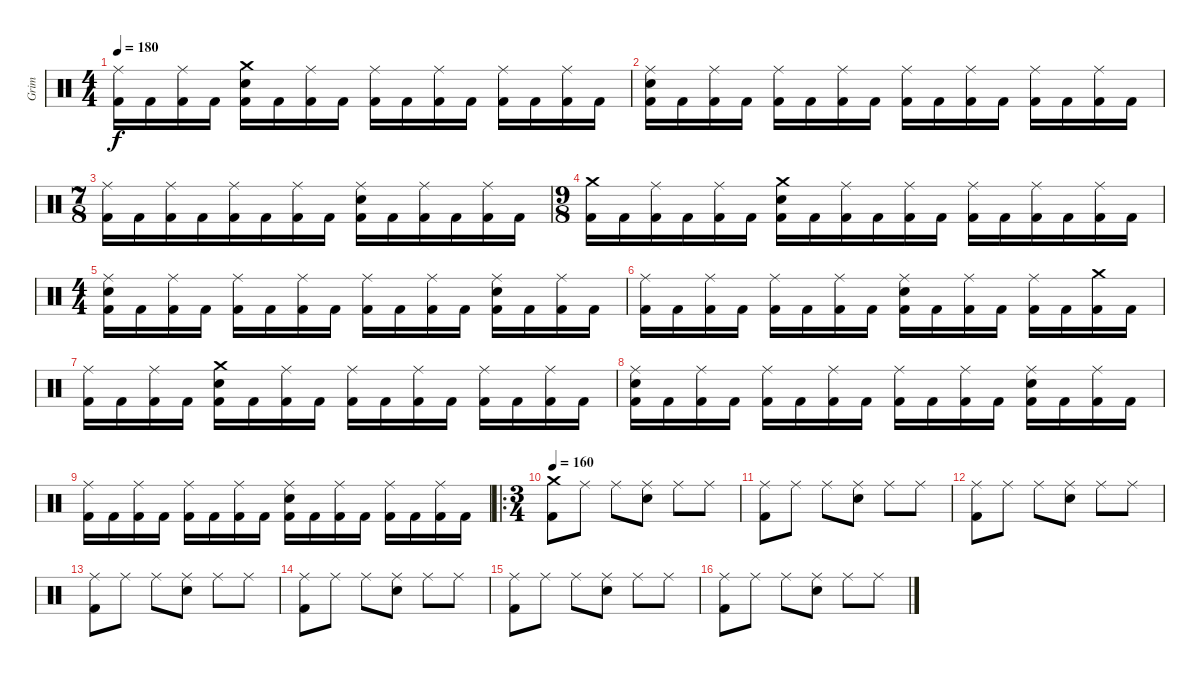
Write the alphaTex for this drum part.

\track ("Grim" "Grim") {instrument percussion}
\staff {score}
\articulation defaults
\ts (4 4)
\tempo 180
\clef neutral
\ks c
("Kick (hit) 2" "Ride (middle)").16{dy f} "Kick (hit) 2".16 ("Kick (hit) 2" "Ride (middle)").16 "Kick (hit) 2".16 ("Kick (hit) 2" "Electric Snare (hit)" "Crash medium (hit)").16 "Kick (hit) 2".16 ("Kick (hit) 2" "Ride (middle)").16 "Kick (hit) 2".16 ("Kick (hit) 2" "Ride (middle)").16 "Kick (hit) 2".16 ("Kick (hit) 2" "Ride (middle)").16 "Kick (hit) 2".16 ("Kick (hit) 2" "Ride (middle)").16 "Kick (hit) 2".16 ("Kick (hit) 2" "Ride (middle)").16 "Kick (hit) 2".16 |
("Kick (hit) 2" "Electric Snare (hit)" "Ride (middle)").16 "Kick (hit) 2".16 ("Kick (hit) 2" "Ride (middle)").16 "Kick (hit) 2".16 ("Kick (hit) 2" "Ride (middle)").16 "Kick (hit) 2".16 ("Kick (hit) 2" "Ride (middle)").16 "Kick (hit) 2".16 ("Kick (hit) 2" "Ride (middle)").16 "Kick (hit) 2".16 ("Kick (hit) 2" "Ride (middle)").16 "Kick (hit) 2".16 ("Kick (hit) 2" "Ride (middle)").16 "Kick (hit) 2".16 ("Kick (hit) 2" "Ride (middle)").16 "Kick (hit) 2".16 |
\ts (7 8)
("Kick (hit) 2" "Ride (middle)").16 "Kick (hit) 2".16 ("Kick (hit) 2" "Ride (middle)").16 "Kick (hit) 2".16 ("Kick (hit) 2" "Ride (middle)").16 "Kick (hit) 2".16 ("Kick (hit) 2" "Ride (middle)").16 "Kick (hit) 2".16 ("Kick (hit) 2" "Electric Snare (hit)" "Ride (middle)").16 "Kick (hit) 2".16 ("Kick (hit) 2" "Ride (middle)").16 "Kick (hit) 2".16 ("Kick (hit) 2" "Ride (middle)").16 "Kick (hit) 2".16 |
\ts (9 8)
("Kick (hit) 2" "Crash medium (hit)").16 "Kick (hit) 2".16 ("Kick (hit) 2" "Ride (middle)").16 "Kick (hit) 2".16 ("Kick (hit) 2" "Ride (middle)").16 "Kick (hit) 2".16 ("Kick (hit) 2" "Electric Snare (hit)" "Crash medium (hit)").16 "Kick (hit) 2".16 ("Kick (hit) 2" "Ride (middle)").16 "Kick (hit) 2".16 ("Kick (hit) 2" "Ride (middle)").16 "Kick (hit) 2".16 ("Kick (hit) 2" "Ride (middle)").16 "Kick (hit) 2".16 ("Kick (hit) 2" "Ride (middle)").16 "Kick (hit) 2".16 ("Kick (hit) 2" "Ride (middle)").16 "Kick (hit) 2".16 |
\ts (4 4)
("Kick (hit) 2" "Electric Snare (hit)" "Ride (middle)").16 "Kick (hit) 2".16 ("Kick (hit) 2" "Ride (middle)").16 "Kick (hit) 2".16 ("Kick (hit) 2" "Ride (middle)").16 "Kick (hit) 2".16 ("Kick (hit) 2" "Ride (middle)").16 "Kick (hit) 2".16 ("Kick (hit) 2" "Ride (middle)").16 "Kick (hit) 2".16 ("Kick (hit) 2" "Ride (middle)").16 "Kick (hit) 2".16 ("Kick (hit) 2" "Electric Snare (hit)" "Ride (middle)").16 "Kick (hit) 2".16 ("Kick (hit) 2" "Ride (middle)").16 "Kick (hit) 2".16 |
("Kick (hit) 2" "Ride (middle)").16 "Kick (hit) 2".16 ("Kick (hit) 2" "Ride (middle)").16 "Kick (hit) 2".16 ("Kick (hit) 2" "Ride (middle)").16 "Kick (hit) 2".16 ("Kick (hit) 2" "Ride (middle)").16 "Kick (hit) 2".16 ("Kick (hit) 2" "Electric Snare (hit)" "Ride (middle)").16 "Kick (hit) 2".16 ("Kick (hit) 2" "Ride (middle)").16 "Kick (hit) 2".16 ("Kick (hit) 2" "Ride (middle)").16 "Kick (hit) 2".16 ("Kick (hit) 2" "Crash medium (hit)").16 "Kick (hit) 2".16 |
("Kick (hit) 2" "Ride (middle)").16 "Kick (hit) 2".16 ("Kick (hit) 2" "Ride (middle)").16 "Kick (hit) 2".16 ("Kick (hit) 2" "Electric Snare (hit)" "Crash medium (hit)").16 "Kick (hit) 2".16 ("Kick (hit) 2" "Ride (middle)").16 "Kick (hit) 2".16 ("Kick (hit) 2" "Ride (middle)").16 "Kick (hit) 2".16 ("Kick (hit) 2" "Ride (middle)").16 "Kick (hit) 2".16 ("Kick (hit) 2" "Ride (middle)").16 "Kick (hit) 2".16 ("Kick (hit) 2" "Ride (middle)").16 "Kick (hit) 2".16 |
("Kick (hit) 2" "Electric Snare (hit)" "Ride (middle)").16 "Kick (hit) 2".16 ("Kick (hit) 2" "Ride (middle)").16 "Kick (hit) 2".16 ("Kick (hit) 2" "Ride (middle)").16 "Kick (hit) 2".16 ("Kick (hit) 2" "Ride (middle)").16 "Kick (hit) 2".16 ("Kick (hit) 2" "Ride (middle)").16 "Kick (hit) 2".16 ("Kick (hit) 2" "Ride (middle)").16 "Kick (hit) 2".16 ("Kick (hit) 2" "Electric Snare (hit)" "Ride (middle)").16 "Kick (hit) 2".16 ("Kick (hit) 2" "Ride (middle)").16 "Kick (hit) 2".16 |
("Kick (hit) 2" "Ride (middle)").16 "Kick (hit) 2".16 ("Kick (hit) 2" "Ride (middle)").16 "Kick (hit) 2".16 ("Kick (hit) 2" "Ride (middle)").16 "Kick (hit) 2".16 ("Kick (hit) 2" "Ride (middle)").16 "Kick (hit) 2".16 ("Kick (hit) 2" "Electric Snare (hit)" "Ride (middle)").16 "Kick (hit) 2".16 ("Kick (hit) 2" "Ride (middle)").16 "Kick (hit) 2".16 ("Kick (hit) 2" "Ride (middle)").16 "Kick (hit) 2".16 ("Kick (hit) 2" "Ride (middle)").16 "Kick (hit) 2".16 |
\ro
\ts (3 4)
\tempo 160
("Kick (hit) 2" "Crash medium (hit)").8 "Ride (middle)".8 "Ride (middle)".8 ("Electric Snare (hit)" "Ride (middle)").8 "Ride (middle)".8 "Ride (middle)".8 |
("Kick (hit) 2" "Ride (middle)").8 "Ride (middle)".8 "Ride (middle)".8 ("Electric Snare (hit)" "Ride (middle)").8 "Ride (middle)".8 "Ride (middle)".8 |
("Kick (hit) 2" "Ride (middle)").8 "Ride (middle)".8 "Ride (middle)".8 ("Electric Snare (hit)" "Ride (middle)").8 "Ride (middle)".8 "Ride (middle)".8 |
("Kick (hit) 2" "Ride (middle)").8 "Ride (middle)".8 "Ride (middle)".8 ("Electric Snare (hit)" "Ride (middle)").8 "Ride (middle)".8 "Ride (middle)".8 |
("Kick (hit) 2" "Ride (middle)").8 "Ride (middle)".8 "Ride (middle)".8 ("Electric Snare (hit)" "Ride (middle)").8 "Ride (middle)".8 "Ride (middle)".8 |
("Kick (hit) 2" "Ride (middle)").8 "Ride (middle)".8 "Ride (middle)".8 ("Electric Snare (hit)" "Ride (middle)").8 "Ride (middle)".8 "Ride (middle)".8 |
("Kick (hit) 2" "Ride (middle)").8 "Ride (middle)".8 "Ride (middle)".8 ("Electric Snare (hit)" "Ride (middle)").8 "Ride (middle)".8 "Ride (middle)".8
